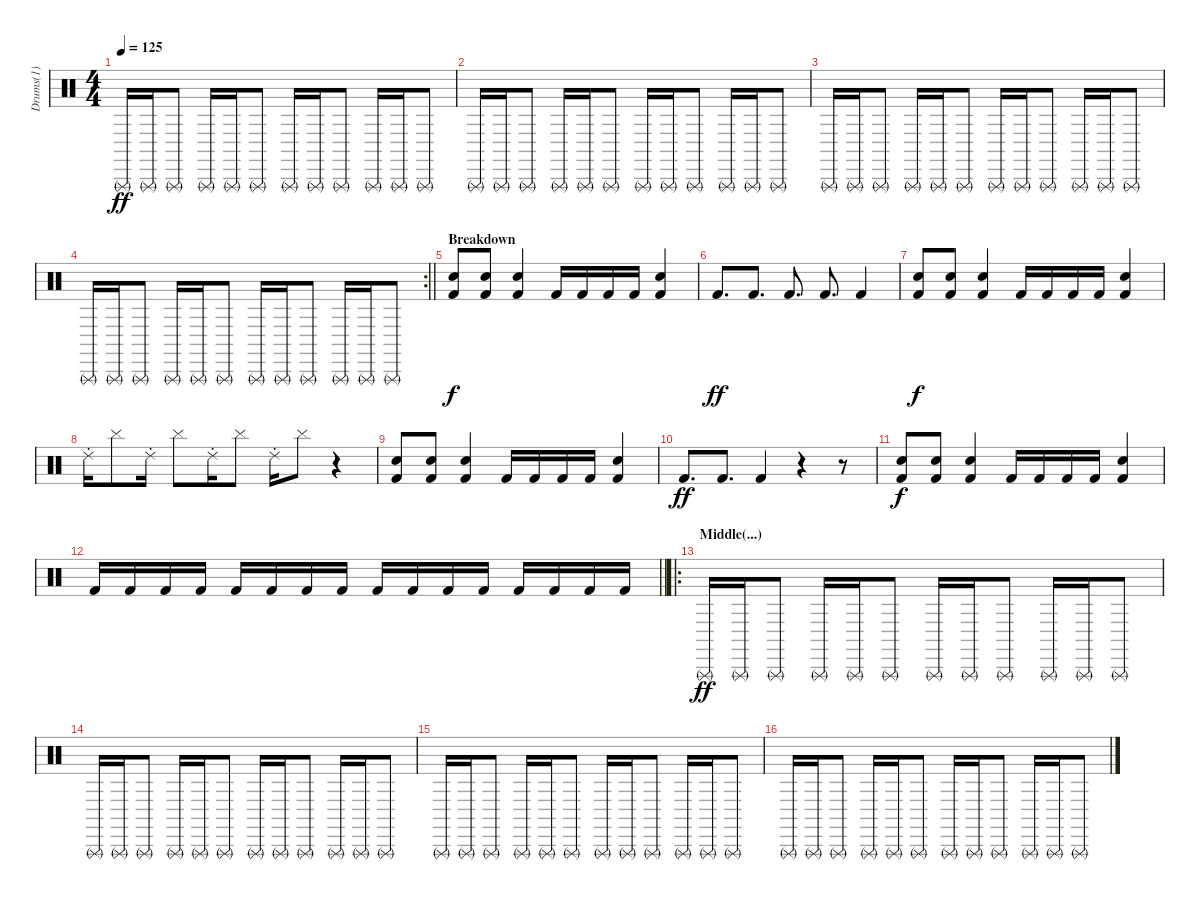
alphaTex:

\track ("Drums(1)" "Drums(1)") {instrument percussion}
\staff {score}
\articulation defaults
\ts (4 4)
\tempo 125
\clef neutral
\ks c "Triangle (rnute)".16{dy ff} "Triangle (rnute)".16 "Triangle (rnute)".8 "Triangle (rnute)".16 "Triangle (rnute)".16 "Triangle (rnute)".8 "Triangle (rnute)".16 "Triangle (rnute)".16 "Triangle (rnute)".8 "Triangle (rnute)".16 "Triangle (rnute)".16 "Triangle (rnute)".8
|
"Triangle (rnute)".16 "Triangle (rnute)".16 "Triangle (rnute)".8 "Triangle (rnute)".16 "Triangle (rnute)".16 "Triangle (rnute)".8 "Triangle (rnute)".16 "Triangle (rnute)".16 "Triangle (rnute)".8 "Triangle (rnute)".16 "Triangle (rnute)".16 "Triangle (rnute)".8 |
"Triangle (rnute)".16 "Triangle (rnute)".16 "Triangle (rnute)".8 "Triangle (rnute)".16 "Triangle (rnute)".16 "Triangle (rnute)".8 "Triangle (rnute)".16 "Triangle (rnute)".16 "Triangle (rnute)".8 "Triangle (rnute)".16 "Triangle (rnute)".16 "Triangle (rnute)".8 |
\rc 2
\barLineRight lightlight "Triangle (rnute)".16 "Triangle (rnute)".16 "Triangle (rnute)".8 "Triangle (rnute)".16 "Triangle (rnute)".16 "Triangle (rnute)".8 "Triangle (rnute)".16 "Triangle (rnute)".16 "Triangle (rnute)".8 "Triangle (rnute)".16 "Triangle (rnute)".16 "Triangle (rnute)".8
|
\section ("" "Breakdown")
("Snare (hit) 2" "Kick (hit) 2").8{dy f} ("Snare (hit) 2" "Kick (hit) 2").8 ("Snare (hit) 2" "Kick (hit) 2").4 "Kick (hit) 2".16 "Kick (hit) 2".16 "Kick (hit) 2".16 "Kick (hit) 2".16 ("Snare (hit) 2" "Kick (hit) 2").4 |
"Kick (hit) 2".8{d dy ff} "Kick (hit) 2".8{d} "Kick (hit) 2".8{d} "Kick (hit) 2".8{d} "Kick (hit) 2".4 |
("Snare (hit) 2" "Kick (hit) 2").8{dy f} ("Snare (hit) 2" "Kick (hit) 2").8 ("Snare (hit) 2" "Kick (hit) 2").4 "Kick (hit) 2".16 "Kick (hit) 2".16 "Kick (hit) 2".16 "Kick (hit) 2".16 ("Snare (hit) 2" "Kick (hit) 2").4 |
"Ride (choke) 2".16 "Cymbal (hit)".8 "Ride (choke) 2".16 "Cymbal (hit)".8 "Ride (choke) 2".16 "Cymbal (hit)".8 "Ride (choke) 2".16 "Cymbal (hit)".8 r.4 |
("Snare (hit) 2" "Kick (hit) 2").8 ("Snare (hit) 2" "Kick (hit) 2").8 ("Snare (hit) 2" "Kick (hit) 2").4 "Kick (hit) 2".16 "Kick (hit) 2".16 "Kick (hit) 2".16 "Kick (hit) 2".16 ("Snare (hit) 2" "Kick (hit) 2").4 |
"Kick (hit) 2".8{d dy ff} "Kick (hit) 2".8{d} "Kick (hit) 2".4 r.4 r.8 |
("Snare (hit) 2" "Kick (hit) 2").8{dy f} ("Snare (hit) 2" "Kick (hit) 2").8 ("Snare (hit) 2" "Kick (hit) 2").4 "Kick (hit) 2".16 "Kick (hit) 2".16 "Kick (hit) 2".16 "Kick (hit) 2".16 ("Snare (hit) 2" "Kick (hit) 2").4 |
\barLineRight lightlight "Kick (hit) 2".16 "Kick (hit) 2".16 "Kick (hit) 2".16 "Kick (hit) 2".16 "Kick (hit) 2".16 "Kick (hit) 2".16 "Kick (hit) 2".16 "Kick (hit) 2".16 "Kick (hit) 2".16 "Kick (hit) 2".16 "Kick (hit) 2".16 "Kick (hit) 2".16 "Kick (hit) 2".16 "Kick (hit) 2".16 "Kick (hit) 2".16 "Kick (hit) 2".16
|
\ro
\section ("" "Middle(...)")
"Triangle (rnute)".16{dy ff volume 16} "Triangle (rnute)".16 "Triangle (rnute)".8 "Triangle (rnute)".16 "Triangle (rnute)".16 "Triangle (rnute)".8 "Triangle (rnute)".16 "Triangle (rnute)".16 "Triangle (rnute)".8 "Triangle (rnute)".16 "Triangle (rnute)".16 "Triangle (rnute)".8 |
"Triangle (rnute)".16 "Triangle (rnute)".16 "Triangle (rnute)".8 "Triangle (rnute)".16 "Triangle (rnute)".16 "Triangle (rnute)".8 "Triangle (rnute)".16 "Triangle (rnute)".16 "Triangle (rnute)".8 "Triangle (rnute)".16 "Triangle (rnute)".16 "Triangle (rnute)".8 |
"Triangle (rnute)".16 "Triangle (rnute)".16 "Triangle (rnute)".8 "Triangle (rnute)".16 "Triangle (rnute)".16 "Triangle (rnute)".8 "Triangle (rnute)".16 "Triangle (rnute)".16 "Triangle (rnute)".8 "Triangle (rnute)".16 "Triangle (rnute)".16 "Triangle (rnute)".8 |
"Triangle (rnute)".16 "Triangle (rnute)".16 "Triangle (rnute)".8 "Triangle (rnute)".16 "Triangle (rnute)".16 "Triangle (rnute)".8 "Triangle (rnute)".16 "Triangle (rnute)".16 "Triangle (rnute)".8 "Triangle (rnute)".16 "Triangle (rnute)".16 "Triangle (rnute)".8
